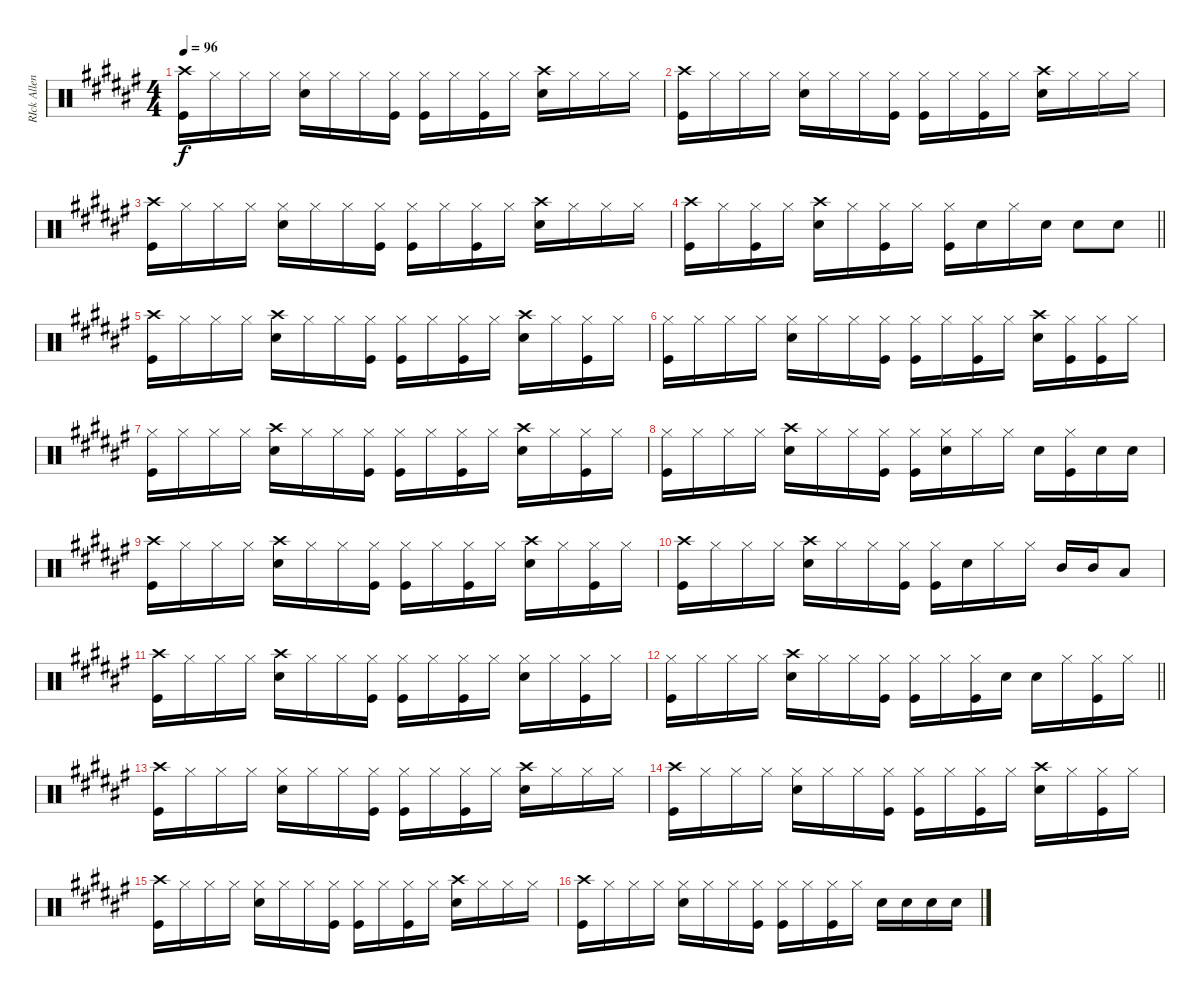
\track ("RIck Allen" "RIck Allen") {instrument percussion}
\staff {score}
\articulation defaults
\ts (4 4)
\tempo 96
\clef neutral
\ks f#
("Crash high (hit)" "Kick (hit)").16{dy f} "Hi-Hat (closed)".16 "Hi-Hat (closed)".16 "Hi-Hat (closed)".16 ("Hi-Hat (closed)" "Snare (hit) 2").16 "Hi-Hat (closed)".16 "Hi-Hat (closed)".16 ("Hi-Hat (closed)" "Kick (hit)").16 ("Hi-Hat (closed)" "Kick (hit)").16 "Hi-Hat (closed)".16 ("Hi-Hat (closed)" "Kick (hit)").16 "Hi-Hat (closed)".16 ("Crash high (hit)" "Snare (hit) 2").16 "Hi-Hat (closed)".16 "Hi-Hat (closed)".16 "Hi-Hat (closed)".16 |
("Crash high (hit)" "Kick (hit)").16 "Hi-Hat (closed)".16 "Hi-Hat (closed)".16 "Hi-Hat (closed)".16 ("Hi-Hat (closed)" "Snare (hit) 2").16 "Hi-Hat (closed)".16 "Hi-Hat (closed)".16 ("Hi-Hat (closed)" "Kick (hit)").16 ("Hi-Hat (closed)" "Kick (hit)").16 "Hi-Hat (closed)".16 ("Hi-Hat (closed)" "Kick (hit)").16 "Hi-Hat (closed)".16 ("Crash high (hit)" "Snare (hit) 2").16 "Hi-Hat (closed)".16 "Hi-Hat (closed)".16 "Hi-Hat (closed)".16 |
("Crash high (hit)" "Kick (hit)").16 "Hi-Hat (closed)".16 "Hi-Hat (closed)".16 "Hi-Hat (closed)".16 ("Hi-Hat (closed)" "Snare (hit) 2").16 "Hi-Hat (closed)".16 "Hi-Hat (closed)".16 ("Hi-Hat (closed)" "Kick (hit)").16 ("Hi-Hat (closed)" "Kick (hit)").16 "Hi-Hat (closed)".16 ("Hi-Hat (closed)" "Kick (hit)").16 "Hi-Hat (closed)".16 ("Crash high (hit)" "Snare (hit) 2").16 "Hi-Hat (closed)".16 "Hi-Hat (closed)".16 "Hi-Hat (closed)".16 |
\barLineRight lightlight
("Crash high (hit)" "Kick (hit)").16 "Hi-Hat (closed)".16 ("Hi-Hat (closed)" "Kick (hit)").16 "Hi-Hat (closed)".16 ("Crash high (hit)" "Snare (hit) 2").16 "Hi-Hat (closed)".16 ("Hi-Hat (closed)" "Kick (hit)").16 "Hi-Hat (closed)".16 ("Hi-Hat (closed)" "Kick (hit)").16 "Snare (hit) 2".16 "Hi-Hat (closed)".16 "Snare (hit) 2".16 "Snare (hit) 2".8 "Snare (hit) 2".8 |
("Crash high (hit)" "Kick (hit)").16 "Hi-Hat (closed)".16 "Hi-Hat (closed)".16 "Hi-Hat (closed)".16 ("Crash high (hit)" "Snare (hit) 2").16 "Hi-Hat (closed)".16 "Hi-Hat (closed)".16 ("Hi-Hat (closed)" "Kick (hit)").16 ("Hi-Hat (closed)" "Kick (hit)").16 "Hi-Hat (closed)".16 ("Hi-Hat (closed)" "Kick (hit)").16 "Hi-Hat (closed)".16 ("Crash high (hit)" "Snare (hit) 2").16 "Hi-Hat (closed)".16 ("Hi-Hat (closed)" "Kick (hit)").16 "Hi-Hat (closed)".16 |
("Hi-Hat (closed)" "Kick (hit)").16 "Hi-Hat (closed)".16 "Hi-Hat (closed)".16 "Hi-Hat (closed)".16 ("Hi-Hat (closed)" "Snare (hit) 2").16 "Hi-Hat (closed)".16 "Hi-Hat (closed)".16 ("Hi-Hat (closed)" "Kick (hit)").16 ("Hi-Hat (closed)" "Kick (hit)").16 "Hi-Hat (closed)".16 ("Hi-Hat (closed)" "Kick (hit)").16 "Hi-Hat (closed)".16 ("Crash high (hit)" "Snare (hit) 2").16 ("Hi-Hat (closed)" "Kick (hit)").16 ("Hi-Hat (closed)" "Kick (hit)").16 "Hi-Hat (closed)".16 |
("Hi-Hat (closed)" "Kick (hit)").16 "Hi-Hat (closed)".16 "Hi-Hat (closed)".16 "Hi-Hat (closed)".16 ("Crash high (hit)" "Snare (hit) 2").16 "Hi-Hat (closed)".16 "Hi-Hat (closed)".16 ("Hi-Hat (closed)" "Kick (hit)").16 ("Hi-Hat (closed)" "Kick (hit)").16 "Hi-Hat (closed)".16 ("Hi-Hat (closed)" "Kick (hit)").16 "Hi-Hat (closed)".16 ("Crash high (hit)" "Snare (hit) 2").16 "Hi-Hat (closed)".16 ("Hi-Hat (closed)" "Kick (hit)").16 "Hi-Hat (closed)".16 |
("Hi-Hat (closed)" "Kick (hit)").16 "Hi-Hat (closed)".16 "Hi-Hat (closed)".16 "Hi-Hat (closed)".16 ("Crash high (hit)" "Snare (hit) 2").16 "Hi-Hat (closed)".16 "Hi-Hat (closed)".16 ("Hi-Hat (closed)" "Kick (hit)").16 ("Hi-Hat (closed)" "Kick (hit)").16 ("Hi-Hat (closed)" "Snare (hit) 2").16 "Hi-Hat (closed)".16 "Hi-Hat (closed)".16 "Snare (hit) 2".16 ("Hi-Hat (closed)" "Kick (hit)").16 "Snare (hit) 2".16 "Snare (hit) 2".16 |
("Crash high (hit)" "Kick (hit)").16 "Hi-Hat (closed)".16 "Hi-Hat (closed)".16 "Hi-Hat (closed)".16 ("Crash high (hit)" "Snare (hit) 2").16 "Hi-Hat (closed)".16 "Hi-Hat (closed)".16 ("Hi-Hat (closed)" "Kick (hit)").16 ("Hi-Hat (closed)" "Kick (hit)").16 "Hi-Hat (closed)".16 ("Hi-Hat (closed)" "Kick (hit)").16 "Hi-Hat (closed)".16 ("Crash high (hit)" "Snare (hit) 2").16 "Hi-Hat (closed)".16 ("Hi-Hat (closed)" "Kick (hit)").16 "Hi-Hat (closed)".16 |
("Crash high (hit)" "Kick (hit)").16 "Hi-Hat (closed)".16 "Hi-Hat (closed)".16 "Hi-Hat (closed)".16 ("Crash high (hit)" "Snare (hit) 2").16 "Hi-Hat (closed)".16 "Hi-Hat (closed)".16 ("Hi-Hat (closed)" "Kick (hit)").16 ("Hi-Hat (closed)" "Kick (hit)").16 "Snare (hit) 2".16 "Hi-Hat (closed)".16 "Hi-Hat (closed)".16 "Mid Tom (hit)".16 "Mid Tom (hit)".16 "Low Tom (hit)".8 |
("Crash high (hit)" "Kick (hit)").16 "Hi-Hat (closed)".16 "Hi-Hat (closed)".16 "Hi-Hat (closed)".16 ("Crash high (hit)" "Snare (hit) 2").16 "Hi-Hat (closed)".16 "Hi-Hat (closed)".16 ("Hi-Hat (closed)" "Kick (hit)").16 ("Hi-Hat (closed)" "Kick (hit)").16 "Hi-Hat (closed)".16 ("Hi-Hat (closed)" "Kick (hit)").16 "Hi-Hat (closed)".16 ("Hi-Hat (closed)" "Snare (hit) 2").16 "Hi-Hat (closed)".16 ("Hi-Hat (closed)" "Kick (hit)").16 "Hi-Hat (closed)".16 |
\barLineRight lightlight
("Hi-Hat (closed)" "Kick (hit)").16 "Hi-Hat (closed)".16 "Hi-Hat (closed)".16 "Hi-Hat (closed)".16 ("Crash high (hit)" "Snare (hit) 2").16 "Hi-Hat (closed)".16 "Hi-Hat (closed)".16 ("Hi-Hat (closed)" "Kick (hit)").16 ("Hi-Hat (closed)" "Kick (hit)").16 "Hi-Hat (closed)".16 ("Hi-Hat (closed)" "Kick (hit)").16 "Snare (hit) 2".16 "Snare (hit) 2".16 "Hi-Hat (closed)".16 ("Hi-Hat (closed)" "Kick (hit)").16 "Hi-Hat (closed)".16 |
("Crash high (hit)" "Kick (hit)").16 "Hi-Hat (closed)".16 "Hi-Hat (closed)".16 "Hi-Hat (closed)".16 ("Hi-Hat (closed)" "Snare (hit) 2").16 "Hi-Hat (closed)".16 "Hi-Hat (closed)".16 ("Hi-Hat (closed)" "Kick (hit)").16 ("Hi-Hat (closed)" "Kick (hit)").16 "Hi-Hat (closed)".16 ("Hi-Hat (closed)" "Kick (hit)").16 "Hi-Hat (closed)".16 ("Crash high (hit)" "Snare (hit) 2").16 "Hi-Hat (closed)".16 "Hi-Hat (closed)".16 "Hi-Hat (closed)".16 |
("Crash high (hit)" "Kick (hit)").16 "Hi-Hat (closed)".16 "Hi-Hat (closed)".16 "Hi-Hat (closed)".16 ("Hi-Hat (closed)" "Snare (hit) 2").16 "Hi-Hat (closed)".16 "Hi-Hat (closed)".16 ("Hi-Hat (closed)" "Kick (hit)").16 ("Hi-Hat (closed)" "Kick (hit)").16 "Hi-Hat (closed)".16 ("Hi-Hat (closed)" "Kick (hit)").16 "Hi-Hat (closed)".16 ("Crash high (hit)" "Snare (hit) 2").16 "Hi-Hat (closed)".16 ("Hi-Hat (closed)" "Kick (hit)").16 "Hi-Hat (closed)".16 |
("Crash high (hit)" "Kick (hit)").16 "Hi-Hat (closed)".16 "Hi-Hat (closed)".16 "Hi-Hat (closed)".16 ("Hi-Hat (closed)" "Snare (hit) 2").16 "Hi-Hat (closed)".16 "Hi-Hat (closed)".16 ("Hi-Hat (closed)" "Kick (hit)").16 ("Hi-Hat (closed)" "Kick (hit)").16 "Hi-Hat (closed)".16 ("Hi-Hat (closed)" "Kick (hit)").16 "Hi-Hat (closed)".16 ("Crash high (hit)" "Snare (hit) 2").16 "Hi-Hat (closed)".16 "Hi-Hat (closed)".16 "Hi-Hat (closed)".16 |
("Crash high (hit)" "Kick (hit)").16 "Hi-Hat (closed)".16 "Hi-Hat (closed)".16 "Hi-Hat (closed)".16 ("Hi-Hat (closed)" "Snare (hit) 2").16 "Hi-Hat (closed)".16 "Hi-Hat (closed)".16 ("Hi-Hat (closed)" "Kick (hit)").16 ("Hi-Hat (closed)" "Kick (hit)").16 "Hi-Hat (closed)".16 ("Hi-Hat (closed)" "Kick (hit)").16 "Hi-Hat (closed)".16 "Snare (hit) 2".16 "Snare (hit) 2".16 "Snare (hit) 2".16 "Snare (hit) 2".16
